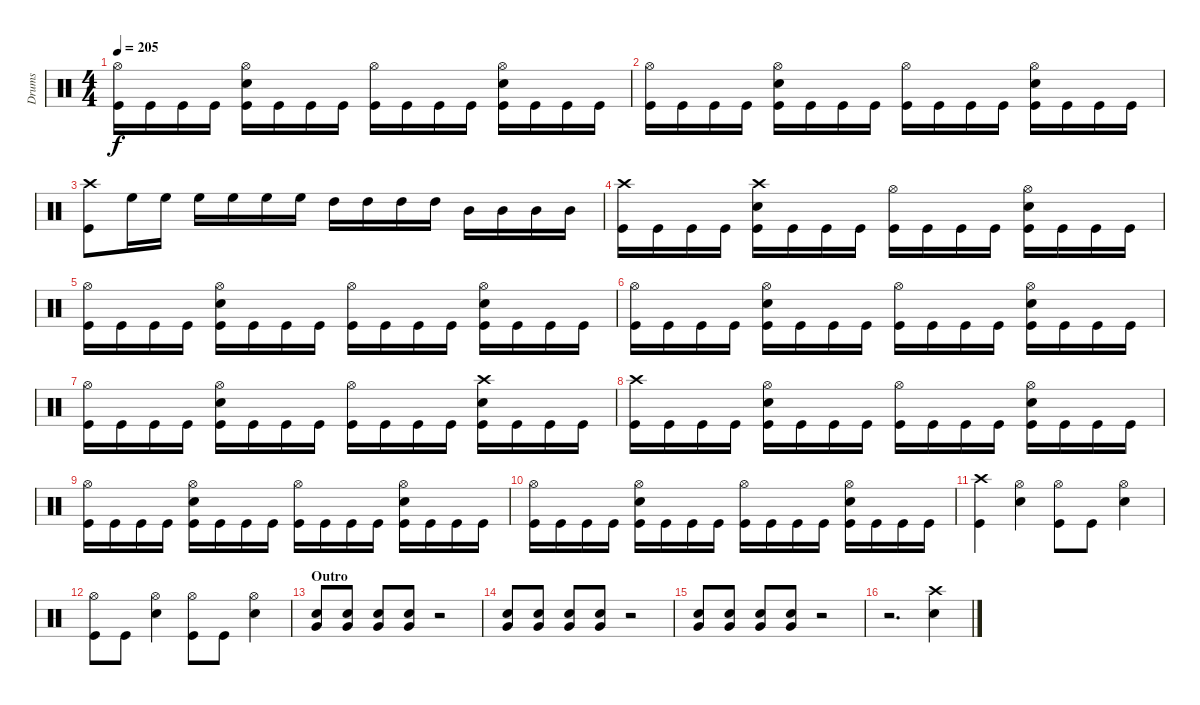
\track ("Drums" "Drums") {instrument percussion}
\staff {score}
\articulation defaults
\ts (4 4)
\tempo 205
\clef neutral
\ks c
("Hi-Hat (open)" "Kick (hit)").16{dy f} "Kick (hit)".16 "Kick (hit)".16 "Kick (hit)".16 ("Hi-Hat (open)" "Snare (hit) 2" "Kick (hit)").16 "Kick (hit)".16 "Kick (hit)".16 "Kick (hit)".16 ("Hi-Hat (open)" "Kick (hit)").16 "Kick (hit)".16 "Kick (hit)".16 "Kick (hit)".16 ("Hi-Hat (open)" "Snare (hit) 2" "Kick (hit)").16 "Kick (hit)".16 "Kick (hit)".16 "Kick (hit)".16 |
("Hi-Hat (open)" "Kick (hit)").16 "Kick (hit)".16 "Kick (hit)".16 "Kick (hit)".16 ("Hi-Hat (open)" "Snare (hit) 2" "Kick (hit)").16 "Kick (hit)".16 "Kick (hit)".16 "Kick (hit)".16 ("Hi-Hat (open)" "Kick (hit)").16 "Kick (hit)".16 "Kick (hit)".16 "Kick (hit)".16 ("Hi-Hat (open)" "Snare (hit) 2" "Kick (hit)").16 "Kick (hit)".16 "Kick (hit)".16 "Kick (hit)".16 |
("Crash high (hit)" "Kick (hit)").8 "High Floor Tom (hit)".16 "High Floor Tom (hit)".16 "High Floor Tom (hit)".16 "High Floor Tom (hit)".16 "High Floor Tom (hit)".16 "High Floor Tom (hit)".16 "High Tom (hit)".16 "High Tom (hit)".16 "High Tom (hit)".16 "High Tom (hit)".16 "Mid Tom (hit)".16 "Mid Tom (hit)".16 "Mid Tom (hit)".16 "Mid Tom (hit)".16 |
("Crash high (hit)" "Kick (hit)").16 "Kick (hit)".16 "Kick (hit)".16 "Kick (hit)".16 ("Crash high (hit)" "Snare (hit) 2" "Kick (hit)").16 "Kick (hit)".16 "Kick (hit)".16 "Kick (hit)".16 ("Hi-Hat (open)" "Kick (hit)").16 "Kick (hit)".16 "Kick (hit)".16 "Kick (hit)".16 ("Hi-Hat (open)" "Snare (hit) 2" "Kick (hit)").16 "Kick (hit)".16 "Kick (hit)".16 "Kick (hit)".16 |
("Hi-Hat (open)" "Kick (hit)").16 "Kick (hit)".16 "Kick (hit)".16 "Kick (hit)".16 ("Hi-Hat (open)" "Snare (hit) 2" "Kick (hit)").16 "Kick (hit)".16 "Kick (hit)".16 "Kick (hit)".16 ("Hi-Hat (open)" "Kick (hit)").16 "Kick (hit)".16 "Kick (hit)".16 "Kick (hit)".16 ("Hi-Hat (open)" "Snare (hit) 2" "Kick (hit)").16 "Kick (hit)".16 "Kick (hit)".16 "Kick (hit)".16 |
("Hi-Hat (open)" "Kick (hit)").16 "Kick (hit)".16 "Kick (hit)".16 "Kick (hit)".16 ("Hi-Hat (open)" "Snare (hit) 2" "Kick (hit)").16 "Kick (hit)".16 "Kick (hit)".16 "Kick (hit)".16 ("Hi-Hat (open)" "Kick (hit)").16 "Kick (hit)".16 "Kick (hit)".16 "Kick (hit)".16 ("Hi-Hat (open)" "Snare (hit) 2" "Kick (hit)").16 "Kick (hit)".16 "Kick (hit)".16 "Kick (hit)".16 |
("Hi-Hat (open)" "Kick (hit)").16 "Kick (hit)".16 "Kick (hit)".16 "Kick (hit)".16 ("Hi-Hat (open)" "Snare (hit) 2" "Kick (hit)").16 "Kick (hit)".16 "Kick (hit)".16 "Kick (hit)".16 ("Hi-Hat (open)" "Kick (hit)").16 "Kick (hit)".16 "Kick (hit)".16 "Kick (hit)".16 ("Crash high (hit)" "Snare (hit) 2" "Kick (hit)").16 "Kick (hit)".16 "Kick (hit)".16 "Kick (hit)".16 |
("Crash high (hit)" "Kick (hit)").16 "Kick (hit)".16 "Kick (hit)".16 "Kick (hit)".16 ("Hi-Hat (open)" "Snare (hit) 2" "Kick (hit)").16 "Kick (hit)".16 "Kick (hit)".16 "Kick (hit)".16 ("Hi-Hat (open)" "Kick (hit)").16 "Kick (hit)".16 "Kick (hit)".16 "Kick (hit)".16 ("Hi-Hat (open)" "Snare (hit) 2" "Kick (hit)").16 "Kick (hit)".16 "Kick (hit)".16 "Kick (hit)".16 |
("Hi-Hat (open)" "Kick (hit)").16 "Kick (hit)".16 "Kick (hit)".16 "Kick (hit)".16 ("Hi-Hat (open)" "Snare (hit) 2" "Kick (hit)").16 "Kick (hit)".16 "Kick (hit)".16 "Kick (hit)".16 ("Hi-Hat (open)" "Kick (hit)").16 "Kick (hit)".16 "Kick (hit)".16 "Kick (hit)".16 ("Hi-Hat (open)" "Snare (hit) 2" "Kick (hit)").16 "Kick (hit)".16 "Kick (hit)".16 "Kick (hit)".16 |
("Hi-Hat (open)" "Kick (hit)").16 "Kick (hit)".16 "Kick (hit)".16 "Kick (hit)".16 ("Hi-Hat (open)" "Snare (hit) 2" "Kick (hit)").16 "Kick (hit)".16 "Kick (hit)".16 "Kick (hit)".16 ("Hi-Hat (open)" "Kick (hit)").16 "Kick (hit)".16 "Kick (hit)".16 "Kick (hit)".16 ("Hi-Hat (open)" "Snare (hit) 2" "Kick (hit)").16 "Kick (hit)".16 "Kick (hit)".16 "Kick (hit)".16 |
("Crash high (hit)" "Kick (hit)").4 ("Hi-Hat (open)" "Snare (hit) 2").4 ("Hi-Hat (open)" "Kick (hit)").8 "Kick (hit)".8 ("Hi-Hat (open)" "Snare (hit) 2").4 |
("Hi-Hat (open)" "Kick (hit)").8 "Kick (hit)".8 ("Hi-Hat (open)" "Snare (hit) 2").4 ("Hi-Hat (open)" "Kick (hit)").8 "Kick (hit)".8 ("Hi-Hat (open)" "Snare (hit) 2").4 |
\section ("" "Outro")
("Snare (hit) 2" "Very Low Tom (hit)").8 ("Snare (hit) 2" "Very Low Tom (hit)").8 ("Snare (hit) 2" "Very Low Tom (hit)").8 ("Snare (hit) 2" "Very Low Tom (hit)").8 r.2 |
("Snare (hit) 2" "Very Low Tom (hit)").8 ("Snare (hit) 2" "Very Low Tom (hit)").8 ("Snare (hit) 2" "Very Low Tom (hit)").8 ("Snare (hit) 2" "Very Low Tom (hit)").8 r.2 |
("Snare (hit) 2" "Very Low Tom (hit)").8 ("Snare (hit) 2" "Very Low Tom (hit)").8 ("Snare (hit) 2" "Very Low Tom (hit)").8 ("Snare (hit) 2" "Very Low Tom (hit)").8 r.2 |
r.2{d} ("Crash high (hit)" "Snare (hit) 2").4
